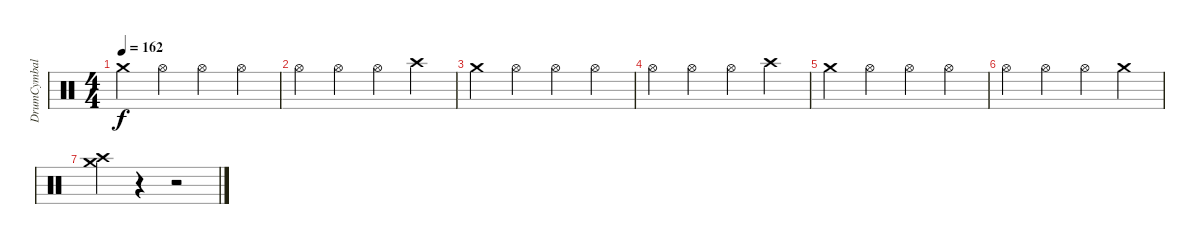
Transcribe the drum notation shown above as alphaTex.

\track ("DrumCymbal" "DrumCymbal") {instrument percussion}
\staff {score}
\articulation defaults
\ts (4 4)
\tempo 162
\clef neutral
\ks c "Crash medium (hit)".4{dy f} "Hi-Hat (open)".4 "Hi-Hat (open)".4 "Hi-Hat (open)".4
|
"Hi-Hat (open)".4 "Hi-Hat (open)".4 "Hi-Hat (open)".4 "Crash high (hit)".4 |
"Crash medium (hit)".4 "Hi-Hat (open)".4 "Hi-Hat (open)".4 "Hi-Hat (open)".4 |
"Hi-Hat (open)".4 "Hi-Hat (open)".4 "Hi-Hat (open)".4 "Crash high (hit)".4 |
"Crash medium (hit)".4 "Hi-Hat (open)".4 "Hi-Hat (open)".4 "Hi-Hat (open)".4 |
"Hi-Hat (open)".4 "Hi-Hat (open)".4 "Hi-Hat (open)".4 "Crash medium (hit)".4 |
("Crash medium (hit)" "Crash high (hit)").4 r.4 r.2
